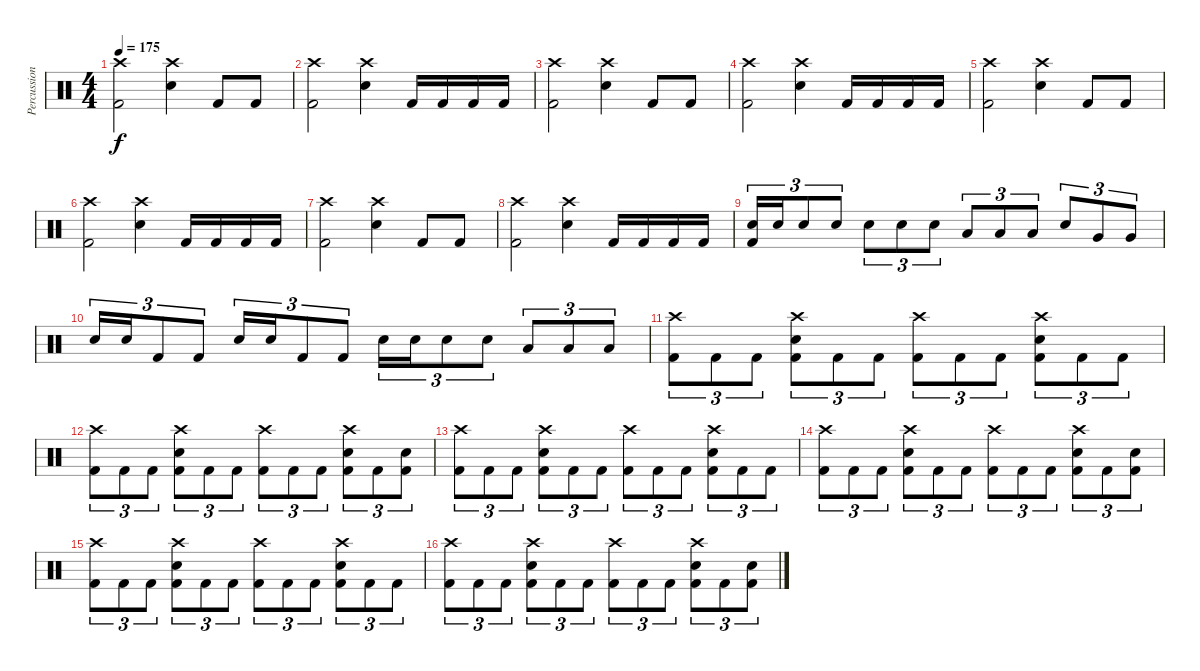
\track ("Percussion" "Percussion") {instrument percussion}
\staff {score}
\articulation defaults
\ts (4 4)
\tempo 175
\clef neutral
\ks c
("Crash high (hit)" "Kick (hit) 2").2{dy f} ("Crash high (hit)" "Electric Snare (hit)").4 "Kick (hit) 2".8 "Kick (hit) 2".8 |
("Crash high (hit)" "Kick (hit) 2").2 ("Crash high (hit)" "Electric Snare (hit)").4 "Kick (hit) 2".16 "Kick (hit) 2".16 "Kick (hit) 2".16 "Kick (hit) 2".16 |
("Crash high (hit)" "Kick (hit) 2").2 ("Crash high (hit)" "Electric Snare (hit)").4 "Kick (hit) 2".8 "Kick (hit) 2".8 |
("Crash high (hit)" "Kick (hit) 2").2 ("Crash high (hit)" "Electric Snare (hit)").4 "Kick (hit) 2".16 "Kick (hit) 2".16 "Kick (hit) 2".16 "Kick (hit) 2".16 |
("Crash high (hit)" "Kick (hit) 2").2 ("Crash high (hit)" "Electric Snare (hit)").4 "Kick (hit) 2".8 "Kick (hit) 2".8 |
("Crash high (hit)" "Kick (hit) 2").2 ("Crash high (hit)" "Electric Snare (hit)").4 "Kick (hit) 2".16 "Kick (hit) 2".16 "Kick (hit) 2".16 "Kick (hit) 2".16 |
("Crash high (hit)" "Kick (hit) 2").2 ("Crash high (hit)" "Electric Snare (hit)").4 "Kick (hit) 2".8 "Kick (hit) 2".8 |
("Crash high (hit)" "Kick (hit) 2").2 ("Crash high (hit)" "Electric Snare (hit)").4 "Kick (hit) 2".16 "Kick (hit) 2".16 "Kick (hit) 2".16 "Kick (hit) 2".16 |
("Electric Snare (hit)" "Kick (hit) 2").16{tu (3 2)} "Electric Snare (hit)".16{tu (3 2)} "Electric Snare (hit)".8{tu (3 2)} "Electric Snare (hit)".8{tu (3 2)} "Electric Snare (hit)".8{tu (3 2)} "Electric Snare (hit)".8{tu (3 2)} "Electric Snare (hit)".8{tu (3 2)} "Low Tom (hit)".8{tu (3 2)} "Low Tom (hit)".8{tu (3 2)} "Low Tom (hit)".8{tu (3 2)} "Electric Snare (hit)".8{tu (3 2)} "Very Low Tom (hit)".8{tu (3 2)} "Very Low Tom (hit)".8{tu (3 2)} |
"Electric Snare (hit)".16{tu (3 2)} "Electric Snare (hit)".16{tu (3 2)} "Kick (hit) 2".8{tu (3 2)} "Kick (hit) 2".8{tu (3 2)} "Electric Snare (hit)".16{tu (3 2)} "Electric Snare (hit)".16{tu (3 2)} "Kick (hit) 2".8{tu (3 2)} "Kick (hit) 2".8{tu (3 2)} "Electric Snare (hit)".16{tu (3 2)} "Electric Snare (hit)".16{tu (3 2)} "Electric Snare (hit)".8{tu (3 2)} "Electric Snare (hit)".8{tu (3 2)} "Low Tom (hit)".8{tu (3 2)} "Low Tom (hit)".8{tu (3 2)} "Low Tom (hit)".8{tu (3 2)} |
("Crash high (hit)" "Kick (hit) 2").8{tu (3 2)} "Kick (hit) 2".8{tu (3 2)} "Kick (hit) 2".8{tu (3 2)} ("Crash high (hit)" "Electric Snare (hit)" "Kick (hit) 2").8{tu (3 2)} "Kick (hit) 2".8{tu (3 2)} "Kick (hit) 2".8{tu (3 2)} ("Crash high (hit)" "Kick (hit) 2").8{tu (3 2)} "Kick (hit) 2".8{tu (3 2)} "Kick (hit) 2".8{tu (3 2)} ("Crash high (hit)" "Electric Snare (hit)" "Kick (hit) 2").8{tu (3 2)} "Kick (hit) 2".8{tu (3 2)} "Kick (hit) 2".8{tu (3 2)} |
("Crash high (hit)" "Kick (hit) 2").8{tu (3 2)} "Kick (hit) 2".8{tu (3 2)} "Kick (hit) 2".8{tu (3 2)} ("Crash high (hit)" "Electric Snare (hit)" "Kick (hit) 2").8{tu (3 2)} "Kick (hit) 2".8{tu (3 2)} "Kick (hit) 2".8{tu (3 2)} ("Crash high (hit)" "Kick (hit) 2").8{tu (3 2)} "Kick (hit) 2".8{tu (3 2)} "Kick (hit) 2".8{tu (3 2)} ("Crash high (hit)" "Electric Snare (hit)" "Kick (hit) 2").8{tu (3 2)} "Kick (hit) 2".8{tu (3 2)} ("Electric Snare (hit)" "Kick (hit) 2").8{tu (3 2)} |
("Crash high (hit)" "Kick (hit) 2").8{tu (3 2)} "Kick (hit) 2".8{tu (3 2)} "Kick (hit) 2".8{tu (3 2)} ("Crash high (hit)" "Electric Snare (hit)" "Kick (hit) 2").8{tu (3 2)} "Kick (hit) 2".8{tu (3 2)} "Kick (hit) 2".8{tu (3 2)} ("Crash high (hit)" "Kick (hit) 2").8{tu (3 2)} "Kick (hit) 2".8{tu (3 2)} "Kick (hit) 2".8{tu (3 2)} ("Crash high (hit)" "Electric Snare (hit)" "Kick (hit) 2").8{tu (3 2)} "Kick (hit) 2".8{tu (3 2)} "Kick (hit) 2".8{tu (3 2)} |
("Crash high (hit)" "Kick (hit) 2").8{tu (3 2)} "Kick (hit) 2".8{tu (3 2)} "Kick (hit) 2".8{tu (3 2)} ("Crash high (hit)" "Electric Snare (hit)" "Kick (hit) 2").8{tu (3 2)} "Kick (hit) 2".8{tu (3 2)} "Kick (hit) 2".8{tu (3 2)} ("Crash high (hit)" "Kick (hit) 2").8{tu (3 2)} "Kick (hit) 2".8{tu (3 2)} "Kick (hit) 2".8{tu (3 2)} ("Crash high (hit)" "Electric Snare (hit)" "Kick (hit) 2").8{tu (3 2)} "Kick (hit) 2".8{tu (3 2)} ("Electric Snare (hit)" "Kick (hit) 2").8{tu (3 2)} |
("Crash high (hit)" "Kick (hit) 2").8{tu (3 2)} "Kick (hit) 2".8{tu (3 2)} "Kick (hit) 2".8{tu (3 2)} ("Crash high (hit)" "Electric Snare (hit)" "Kick (hit) 2").8{tu (3 2)} "Kick (hit) 2".8{tu (3 2)} "Kick (hit) 2".8{tu (3 2)} ("Crash high (hit)" "Kick (hit) 2").8{tu (3 2)} "Kick (hit) 2".8{tu (3 2)} "Kick (hit) 2".8{tu (3 2)} ("Crash high (hit)" "Electric Snare (hit)" "Kick (hit) 2").8{tu (3 2)} "Kick (hit) 2".8{tu (3 2)} "Kick (hit) 2".8{tu (3 2)} |
("Crash high (hit)" "Kick (hit) 2").8{tu (3 2)} "Kick (hit) 2".8{tu (3 2)} "Kick (hit) 2".8{tu (3 2)} ("Crash high (hit)" "Electric Snare (hit)" "Kick (hit) 2").8{tu (3 2)} "Kick (hit) 2".8{tu (3 2)} "Kick (hit) 2".8{tu (3 2)} ("Crash high (hit)" "Kick (hit) 2").8{tu (3 2)} "Kick (hit) 2".8{tu (3 2)} "Kick (hit) 2".8{tu (3 2)} ("Crash high (hit)" "Electric Snare (hit)" "Kick (hit) 2").8{tu (3 2)} "Kick (hit) 2".8{tu (3 2)} ("Electric Snare (hit)" "Kick (hit) 2").8{tu (3 2)}
